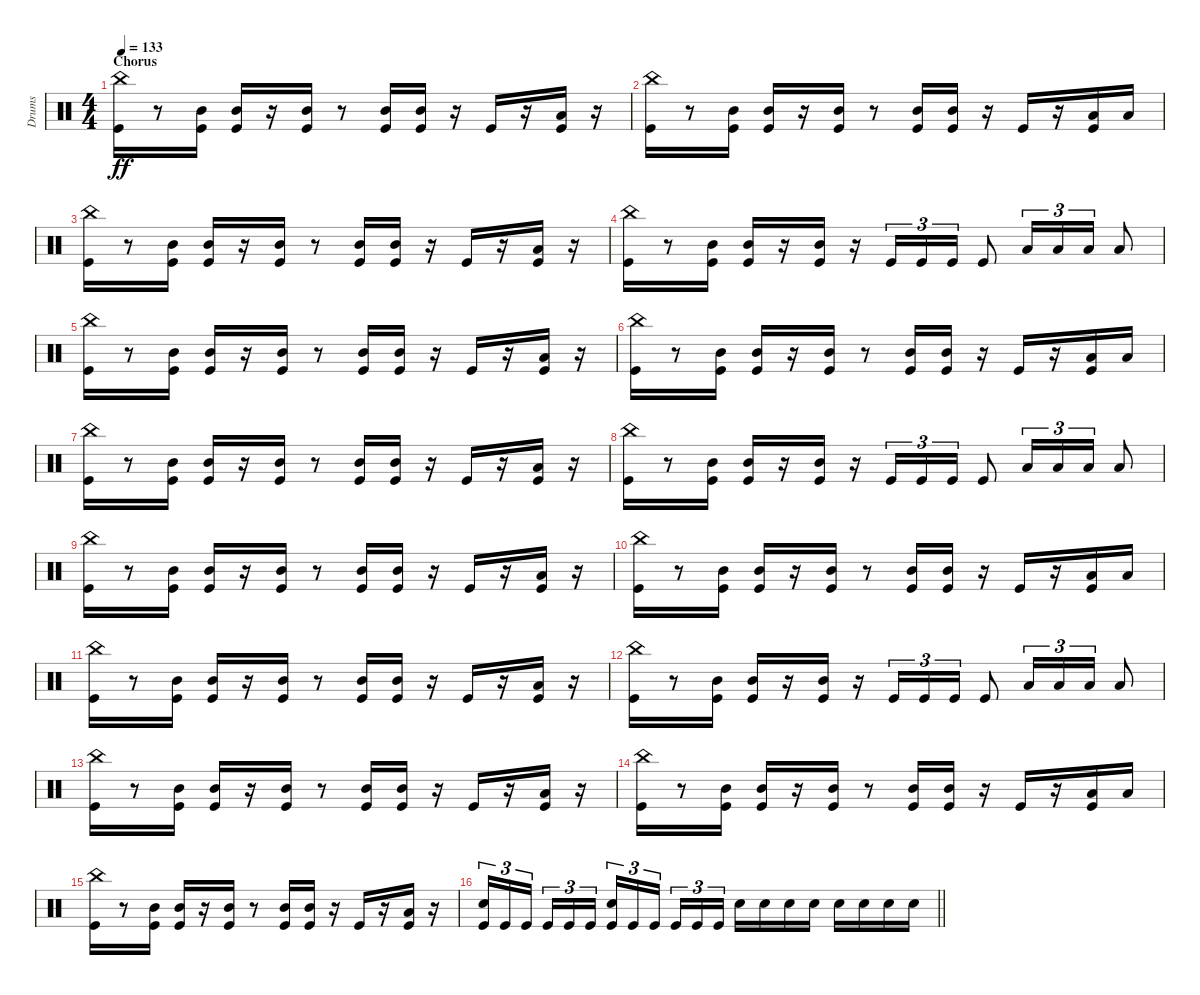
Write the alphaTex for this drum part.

\track ("Drums" "Drums") {instrument percussion}
\staff {score}
\articulation defaults
\ts (4 4)
\section ("" "Chorus")
\tempo 133
\clef neutral
\ks c
("China (hit)" "Kick (hit)").16{dy ff} r.8 ("Mid Tom (hit)" "Kick (hit)").16 ("Mid Tom (hit)" "Kick (hit)").16 r.16 ("Mid Tom (hit)" "Kick (hit)").16 r.8 ("Mid Tom (hit)" "Kick (hit)").16 ("Mid Tom (hit)" "Kick (hit)").16 r.16 "Kick (hit)".16 r.16 ("Low Tom (hit)" "Kick (hit)").16 r.16 |
("China (hit)" "Kick (hit)").16 r.8 ("Mid Tom (hit)" "Kick (hit)").16 ("Mid Tom (hit)" "Kick (hit)").16 r.16 ("Mid Tom (hit)" "Kick (hit)").16 r.8 ("Mid Tom (hit)" "Kick (hit)").16 ("Mid Tom (hit)" "Kick (hit)").16 r.16 "Kick (hit)".16 r.16 ("Low Tom (hit)" "Kick (hit)").16 "Low Tom (hit)".16 |
("China (hit)" "Kick (hit)").16 r.8 ("Mid Tom (hit)" "Kick (hit)").16 ("Mid Tom (hit)" "Kick (hit)").16 r.16 ("Mid Tom (hit)" "Kick (hit)").16 r.8 ("Mid Tom (hit)" "Kick (hit)").16 ("Mid Tom (hit)" "Kick (hit)").16 r.16 "Kick (hit)".16 r.16 ("Low Tom (hit)" "Kick (hit)").16 r.16 |
("China (hit)" "Kick (hit)").16 r.8 ("Mid Tom (hit)" "Kick (hit)").16 ("Mid Tom (hit)" "Kick (hit)").16 r.16 ("Mid Tom (hit)" "Kick (hit)").16 r.16 "Kick (hit)".16{tu (3 2)} "Kick (hit)".16{tu (3 2)} "Kick (hit)".16{tu (3 2)} "Kick (hit)".8 "Low Tom (hit)".16{tu (3 2)} "Low Tom (hit)".16{tu (3 2)} "Low Tom (hit)".16{tu (3 2)} "Low Tom (hit)".8 |
("China (hit)" "Kick (hit)").16 r.8 ("Mid Tom (hit)" "Kick (hit)").16 ("Mid Tom (hit)" "Kick (hit)").16 r.16 ("Mid Tom (hit)" "Kick (hit)").16 r.8 ("Mid Tom (hit)" "Kick (hit)").16 ("Mid Tom (hit)" "Kick (hit)").16 r.16 "Kick (hit)".16 r.16 ("Low Tom (hit)" "Kick (hit)").16 r.16 |
("China (hit)" "Kick (hit)").16 r.8 ("Mid Tom (hit)" "Kick (hit)").16 ("Mid Tom (hit)" "Kick (hit)").16 r.16 ("Mid Tom (hit)" "Kick (hit)").16 r.8 ("Mid Tom (hit)" "Kick (hit)").16 ("Mid Tom (hit)" "Kick (hit)").16 r.16 "Kick (hit)".16 r.16 ("Low Tom (hit)" "Kick (hit)").16 "Low Tom (hit)".16 |
("China (hit)" "Kick (hit)").16 r.8 ("Mid Tom (hit)" "Kick (hit)").16 ("Mid Tom (hit)" "Kick (hit)").16 r.16 ("Mid Tom (hit)" "Kick (hit)").16 r.8 ("Mid Tom (hit)" "Kick (hit)").16 ("Mid Tom (hit)" "Kick (hit)").16 r.16 "Kick (hit)".16 r.16 ("Low Tom (hit)" "Kick (hit)").16 r.16 |
("China (hit)" "Kick (hit)").16 r.8 ("Mid Tom (hit)" "Kick (hit)").16 ("Mid Tom (hit)" "Kick (hit)").16 r.16 ("Mid Tom (hit)" "Kick (hit)").16 r.16 "Kick (hit)".16{tu (3 2)} "Kick (hit)".16{tu (3 2)} "Kick (hit)".16{tu (3 2)} "Kick (hit)".8 "Low Tom (hit)".16{tu (3 2)} "Low Tom (hit)".16{tu (3 2)} "Low Tom (hit)".16{tu (3 2)} "Low Tom (hit)".8 |
("China (hit)" "Kick (hit)").16 r.8 ("Mid Tom (hit)" "Kick (hit)").16 ("Mid Tom (hit)" "Kick (hit)").16 r.16 ("Mid Tom (hit)" "Kick (hit)").16 r.8 ("Mid Tom (hit)" "Kick (hit)").16 ("Mid Tom (hit)" "Kick (hit)").16 r.16 "Kick (hit)".16 r.16 ("Low Tom (hit)" "Kick (hit)").16 r.16 |
("China (hit)" "Kick (hit)").16 r.8 ("Mid Tom (hit)" "Kick (hit)").16 ("Mid Tom (hit)" "Kick (hit)").16 r.16 ("Mid Tom (hit)" "Kick (hit)").16 r.8 ("Mid Tom (hit)" "Kick (hit)").16 ("Mid Tom (hit)" "Kick (hit)").16 r.16 "Kick (hit)".16 r.16 ("Low Tom (hit)" "Kick (hit)").16 "Low Tom (hit)".16 |
("China (hit)" "Kick (hit)").16 r.8 ("Mid Tom (hit)" "Kick (hit)").16 ("Mid Tom (hit)" "Kick (hit)").16 r.16 ("Mid Tom (hit)" "Kick (hit)").16 r.8 ("Mid Tom (hit)" "Kick (hit)").16 ("Mid Tom (hit)" "Kick (hit)").16 r.16 "Kick (hit)".16 r.16 ("Low Tom (hit)" "Kick (hit)").16 r.16 |
("China (hit)" "Kick (hit)").16 r.8 ("Mid Tom (hit)" "Kick (hit)").16 ("Mid Tom (hit)" "Kick (hit)").16 r.16 ("Mid Tom (hit)" "Kick (hit)").16 r.16 "Kick (hit)".16{tu (3 2)} "Kick (hit)".16{tu (3 2)} "Kick (hit)".16{tu (3 2)} "Kick (hit)".8 "Low Tom (hit)".16{tu (3 2)} "Low Tom (hit)".16{tu (3 2)} "Low Tom (hit)".16{tu (3 2)} "Low Tom (hit)".8 |
("China (hit)" "Kick (hit)").16 r.8 ("Mid Tom (hit)" "Kick (hit)").16 ("Mid Tom (hit)" "Kick (hit)").16 r.16 ("Mid Tom (hit)" "Kick (hit)").16 r.8 ("Mid Tom (hit)" "Kick (hit)").16 ("Mid Tom (hit)" "Kick (hit)").16 r.16 "Kick (hit)".16 r.16 ("Low Tom (hit)" "Kick (hit)").16 r.16 |
("China (hit)" "Kick (hit)").16 r.8 ("Mid Tom (hit)" "Kick (hit)").16 ("Mid Tom (hit)" "Kick (hit)").16 r.16 ("Mid Tom (hit)" "Kick (hit)").16 r.8 ("Mid Tom (hit)" "Kick (hit)").16 ("Mid Tom (hit)" "Kick (hit)").16 r.16 "Kick (hit)".16 r.16 ("Low Tom (hit)" "Kick (hit)").16 "Low Tom (hit)".16 |
("China (hit)" "Kick (hit)").16 r.8 ("Mid Tom (hit)" "Kick (hit)").16 ("Mid Tom (hit)" "Kick (hit)").16 r.16 ("Mid Tom (hit)" "Kick (hit)").16 r.8 ("Mid Tom (hit)" "Kick (hit)").16 ("Mid Tom (hit)" "Kick (hit)").16 r.16 "Kick (hit)".16 r.16 ("Low Tom (hit)" "Kick (hit)").16 r.16 |
\barLineRight lightlight
("Snare (hit) 2" "Kick (hit)").16{tu (3 2)} "Kick (hit)".16{tu (3 2)} "Kick (hit)".16{tu (3 2) beam splitsecondary} "Kick (hit)".16{tu (3 2)} "Kick (hit)".16{tu (3 2)} "Kick (hit)".16{tu (3 2)} ("Snare (hit) 2" "Kick (hit)").16{tu (3 2)} "Kick (hit)".16{tu (3 2)} "Kick (hit)".16{tu (3 2) beam splitsecondary} "Kick (hit)".16{tu (3 2)} "Kick (hit)".16{tu (3 2)} "Kick (hit)".16{tu (3 2)} "Snare (hit) 2".16 "Snare (hit) 2".16 "Snare (hit) 2".16 "Snare (hit) 2".16 "Snare (hit) 2".16 "Snare (hit) 2".16 "Snare (hit) 2".16 "Snare (hit) 2".16
